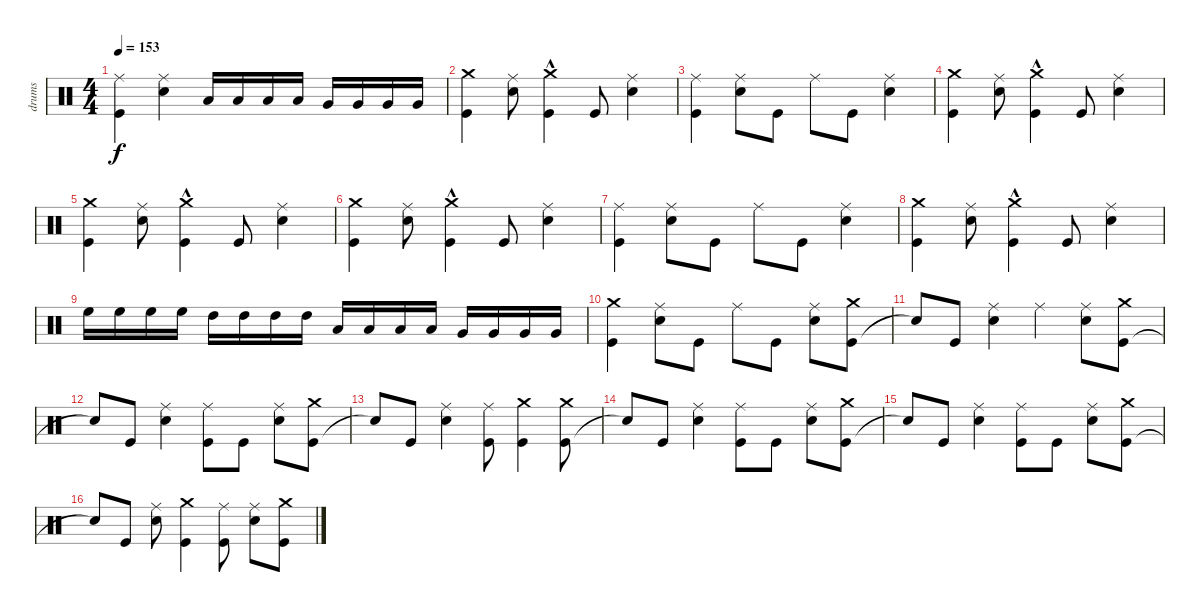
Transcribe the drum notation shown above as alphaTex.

\track ("drums" "drums") {instrument percussion}
\staff {score}
\articulation defaults
\ts (4 4)
\tempo 153
\clef neutral
\ks c
("Kick (hit)" "Ride (middle)").4{dy f} ("Ride (middle)" "Snare (hit) 2").4 "Low Tom (hit)".16 "Low Tom (hit)".16 "Low Tom (hit)".16 "Low Tom (hit)".16 "Very Low Tom (hit)".16 "Very Low Tom (hit)".16 "Very Low Tom (hit)".16 "Very Low Tom (hit)".16 |
("Kick (hit)" "Crash medium (hit)").4 ("Ride (middle)" "Snare (hit) 2").8 ("Crash medium (hit)"{hac} "Kick (hit)").4 "Kick (hit)".8 ("Ride (middle)" "Snare (hit) 2").4 |
("Kick (hit)" "Ride (middle)").4 ("Ride (middle)" "Snare (hit) 2").8 "Kick (hit)".8 "Ride (middle)".8 "Kick (hit)".8 ("Ride (middle)" "Snare (hit) 2").4 |
("Kick (hit)" "Crash medium (hit)").4 ("Ride (middle)" "Snare (hit) 2").8 ("Crash medium (hit)"{hac} "Kick (hit)").4 "Kick (hit)".8 ("Ride (middle)" "Snare (hit) 2").4 |
("Kick (hit)" "Crash medium (hit)").4 ("Ride (middle)" "Snare (hit) 2").8 ("Crash medium (hit)"{hac} "Kick (hit)").4 "Kick (hit)".8 ("Ride (middle)" "Snare (hit) 2").4 |
("Kick (hit)" "Crash medium (hit)").4 ("Ride (middle)" "Snare (hit) 2").8 ("Crash medium (hit)"{hac} "Kick (hit)").4 "Kick (hit)".8 ("Ride (middle)" "Snare (hit) 2").4 |
("Kick (hit)" "Ride (middle)").4 ("Ride (middle)" "Snare (hit) 2").8 "Kick (hit)".8 "Ride (middle)".8 "Kick (hit)".8 ("Ride (middle)" "Snare (hit) 2").4 |
("Kick (hit)" "Crash medium (hit)").4 ("Ride (middle)" "Snare (hit) 2").8 ("Crash medium (hit)"{hac} "Kick (hit)").4 "Kick (hit)".8 ("Ride (middle)" "Snare (hit) 2").4 |
"High Floor Tom (hit)".16 "High Floor Tom (hit)".16 "High Floor Tom (hit)".16 "High Floor Tom (hit)".16 "High Tom (hit)".16 "High Tom (hit)".16 "High Tom (hit)".16 "High Tom (hit)".16 "Low Tom (hit)".16 "Low Tom (hit)".16 "Low Tom (hit)".16 "Low Tom (hit)".16 "Very Low Tom (hit)".16 "Very Low Tom (hit)".16 "Very Low Tom (hit)".16 "Very Low Tom (hit)".16 |
("Kick (hit)" "Crash medium (hit)").4 ("Ride (middle)" "Snare (hit) 2").8 "Kick (hit)".8 "Ride (middle)".8 "Kick (hit)".8 ("Ride (middle)" "Snare (hit) 2").8 ("Kick (hit)" "Crash medium (hit)").8 |
"Snare (hit)"{t}.8 "Kick (hit)".8 ("Ride (middle)" "Snare (hit) 2").4 "Ride (middle)".4 ("Ride (middle)" "Snare (hit) 2").8 ("Kick (hit)" "Crash medium (hit)").8 |
"Snare (hit)"{t}.8 "Kick (hit)".8 ("Ride (middle)" "Snare (hit) 2").4 ("Kick (hit)" "Ride (middle)").8 "Kick (hit)".8 ("Ride (middle)" "Snare (hit) 2").8 ("Kick (hit)" "Crash medium (hit)").8 |
"Snare (hit)"{t}.8 "Kick (hit)".8 ("Ride (middle)" "Snare (hit) 2").4 ("Kick (hit)" "Ride (middle)").8 ("Kick (hit)" "Crash medium (hit)").4 ("Kick (hit)" "Crash medium (hit)").8 |
"Snare (hit)"{t}.8 "Kick (hit)".8 ("Ride (middle)" "Snare (hit) 2").4 ("Kick (hit)" "Ride (middle)").8 "Kick (hit)".8 ("Snare (hit) 2" "Ride (middle)").8 ("Kick (hit)" "Crash medium (hit)").8 |
"Snare (hit)"{t}.8 "Kick (hit)".8 ("Ride (middle)" "Snare (hit) 2").4 ("Kick (hit)" "Ride (middle)").8 "Kick (hit)".8 ("Snare (hit) 2" "Ride (middle)").8 ("Kick (hit)" "Crash medium (hit)").8 |
"Snare (hit)"{t}.8 "Kick (hit)".8 ("Snare (hit) 2" "Ride (middle)").8 ("Crash medium (hit)" "Kick (hit)").4 ("Kick (hit)" "Ride (middle)").8 ("Snare (hit) 2" "Ride (middle)").8 ("Crash medium (hit)" "Kick (hit)").8
